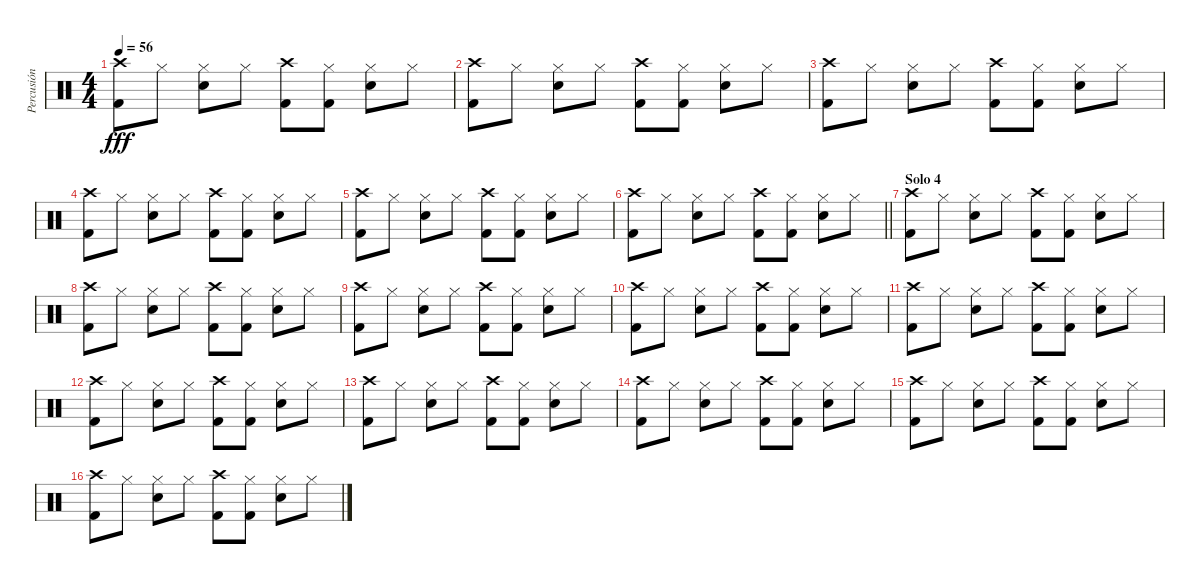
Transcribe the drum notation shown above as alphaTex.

\track ("Percusión" "Percusión") {instrument percussion}
\staff {score}
\articulation defaults
\ts (4 4)
\tempo 56
\clef neutral
\ks c
("Crash high (hit)" "Kick (hit) 2").8{dy fff} "Hi-Hat (closed)".8 ("Hi-Hat (closed)" "Snare (hit) 2").8 "Hi-Hat (closed)".8 ("Crash high (hit)" "Kick (hit) 2").8 ("Hi-Hat (closed)" "Kick (hit) 2").8 ("Hi-Hat (closed)" "Snare (hit) 2").8 "Hi-Hat (closed)".8 |
("Crash high (hit)" "Kick (hit) 2").8 "Hi-Hat (closed)".8 ("Hi-Hat (closed)" "Snare (hit) 2").8 "Hi-Hat (closed)".8 ("Crash high (hit)" "Kick (hit) 2").8 ("Hi-Hat (closed)" "Kick (hit) 2").8 ("Hi-Hat (closed)" "Snare (hit) 2").8 "Hi-Hat (closed)".8 |
("Crash high (hit)" "Kick (hit) 2").8 "Hi-Hat (closed)".8 ("Hi-Hat (closed)" "Snare (hit) 2").8 "Hi-Hat (closed)".8 ("Crash high (hit)" "Kick (hit) 2").8 ("Hi-Hat (closed)" "Kick (hit) 2").8 ("Hi-Hat (closed)" "Snare (hit) 2").8 "Hi-Hat (closed)".8 |
("Crash high (hit)" "Kick (hit) 2").8 "Hi-Hat (closed)".8 ("Hi-Hat (closed)" "Snare (hit) 2").8 "Hi-Hat (closed)".8 ("Crash high (hit)" "Kick (hit) 2").8 ("Hi-Hat (closed)" "Kick (hit) 2").8 ("Hi-Hat (closed)" "Snare (hit) 2").8 "Hi-Hat (closed)".8 |
("Crash high (hit)" "Kick (hit) 2").8 "Hi-Hat (closed)".8 ("Hi-Hat (closed)" "Snare (hit) 2").8 "Hi-Hat (closed)".8 ("Crash high (hit)" "Kick (hit) 2").8 ("Hi-Hat (closed)" "Kick (hit) 2").8 ("Hi-Hat (closed)" "Snare (hit) 2").8 "Hi-Hat (closed)".8 |
\barLineRight lightlight
("Crash high (hit)" "Kick (hit) 2").8 "Hi-Hat (closed)".8 ("Hi-Hat (closed)" "Snare (hit) 2").8 "Hi-Hat (closed)".8 ("Crash high (hit)" "Kick (hit) 2").8 ("Hi-Hat (closed)" "Kick (hit) 2").8 ("Hi-Hat (closed)" "Snare (hit) 2").8 "Hi-Hat (closed)".8 |
\section ("" "Solo 4")
("Crash high (hit)" "Kick (hit) 2").8 "Hi-Hat (closed)".8 ("Hi-Hat (closed)" "Snare (hit) 2").8 "Hi-Hat (closed)".8 ("Crash high (hit)" "Kick (hit) 2").8 ("Hi-Hat (closed)" "Kick (hit) 2").8 ("Hi-Hat (closed)" "Snare (hit) 2").8 "Hi-Hat (closed)".8 |
("Crash high (hit)" "Kick (hit) 2").8 "Hi-Hat (closed)".8 ("Hi-Hat (closed)" "Snare (hit) 2").8 "Hi-Hat (closed)".8 ("Crash high (hit)" "Kick (hit) 2").8 ("Hi-Hat (closed)" "Kick (hit) 2").8 ("Hi-Hat (closed)" "Snare (hit) 2").8 "Hi-Hat (closed)".8 |
("Crash high (hit)" "Kick (hit) 2").8 "Hi-Hat (closed)".8 ("Hi-Hat (closed)" "Snare (hit) 2").8 "Hi-Hat (closed)".8 ("Crash high (hit)" "Kick (hit) 2").8 ("Hi-Hat (closed)" "Kick (hit) 2").8 ("Hi-Hat (closed)" "Snare (hit) 2").8 "Hi-Hat (closed)".8 |
("Crash high (hit)" "Kick (hit) 2").8 "Hi-Hat (closed)".8 ("Hi-Hat (closed)" "Snare (hit) 2").8 "Hi-Hat (closed)".8 ("Crash high (hit)" "Kick (hit) 2").8 ("Hi-Hat (closed)" "Kick (hit) 2").8 ("Hi-Hat (closed)" "Snare (hit) 2").8 "Hi-Hat (closed)".8 |
("Crash high (hit)" "Kick (hit) 2").8 "Hi-Hat (closed)".8 ("Hi-Hat (closed)" "Snare (hit) 2").8 "Hi-Hat (closed)".8 ("Crash high (hit)" "Kick (hit) 2").8 ("Hi-Hat (closed)" "Kick (hit) 2").8 ("Hi-Hat (closed)" "Snare (hit) 2").8 "Hi-Hat (closed)".8 |
("Crash high (hit)" "Kick (hit) 2").8 "Hi-Hat (closed)".8 ("Hi-Hat (closed)" "Snare (hit) 2").8 "Hi-Hat (closed)".8 ("Crash high (hit)" "Kick (hit) 2").8 ("Hi-Hat (closed)" "Kick (hit) 2").8 ("Hi-Hat (closed)" "Snare (hit) 2").8 "Hi-Hat (closed)".8 |
("Crash high (hit)" "Kick (hit) 2").8 "Hi-Hat (closed)".8 ("Hi-Hat (closed)" "Snare (hit) 2").8 "Hi-Hat (closed)".8 ("Crash high (hit)" "Kick (hit) 2").8 ("Hi-Hat (closed)" "Kick (hit) 2").8 ("Hi-Hat (closed)" "Snare (hit) 2").8 "Hi-Hat (closed)".8 |
("Crash high (hit)" "Kick (hit) 2").8 "Hi-Hat (closed)".8 ("Hi-Hat (closed)" "Snare (hit) 2").8 "Hi-Hat (closed)".8 ("Crash high (hit)" "Kick (hit) 2").8 ("Hi-Hat (closed)" "Kick (hit) 2").8 ("Hi-Hat (closed)" "Snare (hit) 2").8 "Hi-Hat (closed)".8 |
("Crash high (hit)" "Kick (hit) 2").8 "Hi-Hat (closed)".8 ("Hi-Hat (closed)" "Snare (hit) 2").8 "Hi-Hat (closed)".8 ("Crash high (hit)" "Kick (hit) 2").8 ("Hi-Hat (closed)" "Kick (hit) 2").8 ("Hi-Hat (closed)" "Snare (hit) 2").8 "Hi-Hat (closed)".8 |
("Crash high (hit)" "Kick (hit) 2").8 "Hi-Hat (closed)".8 ("Hi-Hat (closed)" "Snare (hit) 2").8 "Hi-Hat (closed)".8 ("Crash high (hit)" "Kick (hit) 2").8 ("Hi-Hat (closed)" "Kick (hit) 2").8 ("Hi-Hat (closed)" "Snare (hit) 2").8 "Hi-Hat (closed)".8
